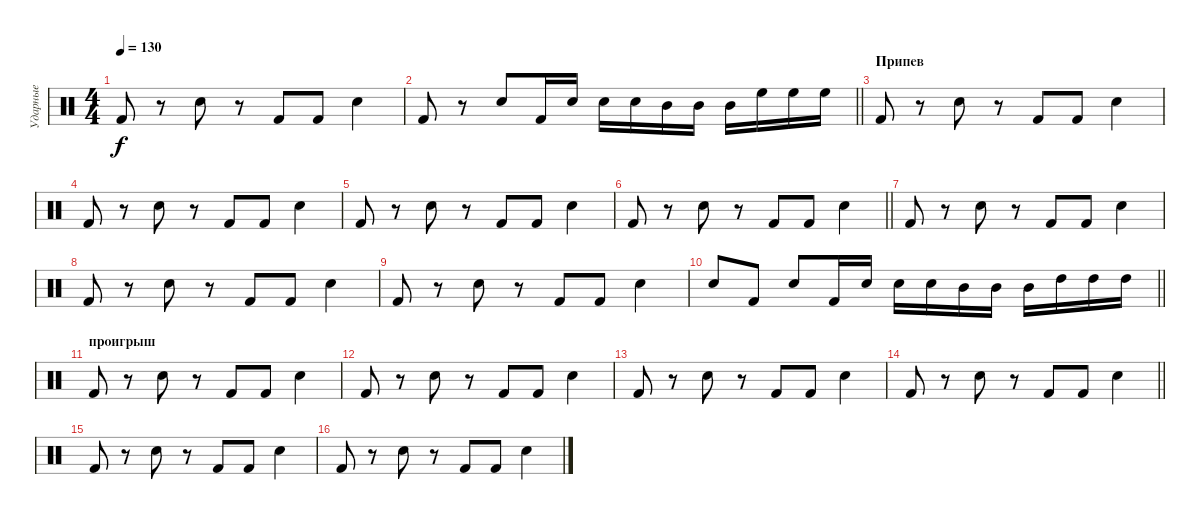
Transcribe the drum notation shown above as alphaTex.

\track ("Ударные" "Ударные") {instrument percussion}
\staff {score}
\articulation defaults
\ts (4 4)
\tempo 130
\clef neutral
\ks c "Kick (hit) 2".8{dy f}
r.8 "Snare (hit) 2".8 r.8 "Kick (hit) 2".8 "Kick (hit) 2".8 "Snare (hit) 2".4 |
\barLineRight lightlight "Kick (hit) 2".8
r.8 "Snare (hit) 2".8 "Kick (hit) 2".16 "Snare (hit) 2".16 "Snare (hit) 2".16 "Snare (hit) 2".16 "Mid Tom (hit)".16 "Mid Tom (hit)".16 "Mid Tom (hit)".16 "High Floor Tom (hit)".16 "High Floor Tom (hit)".16 "High Floor Tom (hit)".16 |
\section ("" "Припев")
"Kick (hit) 2".8 r.8 "Snare (hit) 2".8 r.8 "Kick (hit) 2".8 "Kick (hit) 2".8 "Snare (hit) 2".4 |
"Kick (hit) 2".8 r.8 "Snare (hit) 2".8 r.8 "Kick (hit) 2".8 "Kick (hit) 2".8 "Snare (hit) 2".4 |
"Kick (hit) 2".8 r.8 "Snare (hit) 2".8 r.8 "Kick (hit) 2".8 "Kick (hit) 2".8 "Snare (hit) 2".4 |
\barLineRight lightlight "Kick (hit) 2".8
r.8 "Snare (hit) 2".8 r.8 "Kick (hit) 2".8 "Kick (hit) 2".8 "Snare (hit) 2".4 |
"Kick (hit) 2".8 r.8 "Snare (hit) 2".8 r.8 "Kick (hit) 2".8 "Kick (hit) 2".8 "Snare (hit) 2".4 |
"Kick (hit) 2".8 r.8 "Snare (hit) 2".8 r.8 "Kick (hit) 2".8 "Kick (hit) 2".8 "Snare (hit) 2".4 |
"Kick (hit) 2".8 r.8 "Snare (hit) 2".8 r.8 "Kick (hit) 2".8 "Kick (hit) 2".8 "Snare (hit) 2".4 |
\barLineRight lightlight "Snare (hit) 2".8 "Kick (hit) 2".8 "Snare (hit) 2".8 "Kick (hit) 2".16 "Snare (hit) 2".16 "Snare (hit) 2".16 "Snare (hit) 2".16 "Mid Tom (hit)".16 "Mid Tom (hit)".16 "Mid Tom (hit)".16 "High Tom (hit)".16 "High Tom (hit)".16 "High Tom (hit)".16
|
\section ("" "проигрыш")
"Kick (hit) 2".8 r.8 "Snare (hit) 2".8 r.8 "Kick (hit) 2".8 "Kick (hit) 2".8 "Snare (hit) 2".4 |
"Kick (hit) 2".8 r.8 "Snare (hit) 2".8 r.8 "Kick (hit) 2".8 "Kick (hit) 2".8 "Snare (hit) 2".4 |
"Kick (hit) 2".8 r.8 "Snare (hit) 2".8 r.8 "Kick (hit) 2".8 "Kick (hit) 2".8 "Snare (hit) 2".4 |
\barLineRight lightlight "Kick (hit) 2".8
r.8 "Snare (hit) 2".8 r.8 "Kick (hit) 2".8 "Kick (hit) 2".8 "Snare (hit) 2".4 |
"Kick (hit) 2".8 r.8 "Snare (hit) 2".8 r.8 "Kick (hit) 2".8 "Kick (hit) 2".8 "Snare (hit) 2".4 |
"Kick (hit) 2".8 r.8 "Snare (hit) 2".8 r.8 "Kick (hit) 2".8 "Kick (hit) 2".8 "Snare (hit) 2".4
